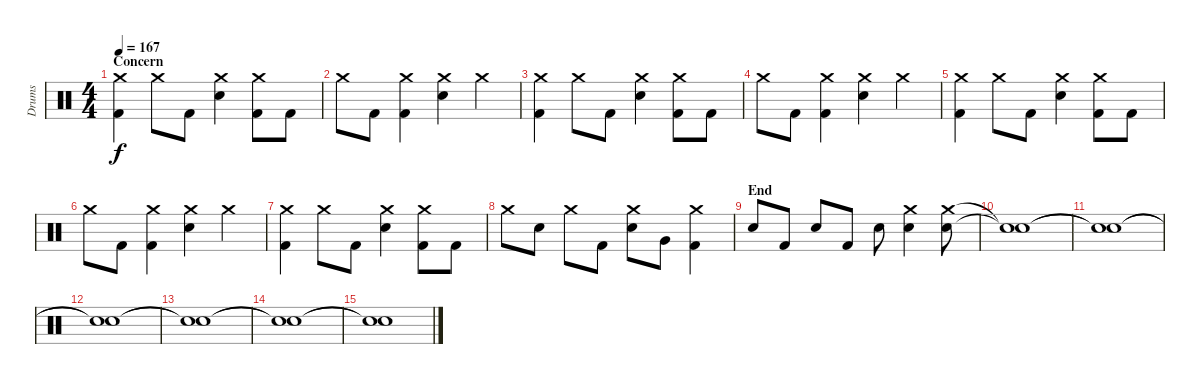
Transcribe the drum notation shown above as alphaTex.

\track ("Drums" "Drums") {instrument percussion}
\staff {score}
\articulation defaults
\ts (4 4)
\section ("" "Concern")
\tempo 167
\clef neutral
\ks c
("Crash medium (hit)" "Kick (hit) 2").4{dy f} "Crash medium (hit)".8 "Kick (hit) 2".8 ("Crash medium (hit)" "Electric Snare (hit)").4 ("Crash medium (hit)" "Kick (hit) 2").8 "Kick (hit) 2".8 |
"Crash medium (hit)".8 "Kick (hit) 2".8 ("Crash medium (hit)" "Kick (hit) 2").4 ("Crash medium (hit)" "Electric Snare (hit)").4 "Crash medium (hit)".4 |
("Crash medium (hit)" "Kick (hit) 2").4 "Crash medium (hit)".8 "Kick (hit) 2".8 ("Crash medium (hit)" "Electric Snare (hit)").4 ("Crash medium (hit)" "Kick (hit) 2").8 "Kick (hit) 2".8 |
"Crash medium (hit)".8 "Kick (hit) 2".8 ("Crash medium (hit)" "Kick (hit) 2").4 ("Crash medium (hit)" "Electric Snare (hit)").4 "Crash medium (hit)".4 |
("Crash medium (hit)" "Kick (hit) 2").4 "Crash medium (hit)".8 "Kick (hit) 2".8 ("Crash medium (hit)" "Electric Snare (hit)").4 ("Crash medium (hit)" "Kick (hit) 2").8 "Kick (hit) 2".8 |
"Crash medium (hit)".8 "Kick (hit) 2".8 ("Crash medium (hit)" "Kick (hit) 2").4 ("Crash medium (hit)" "Electric Snare (hit)").4 "Crash medium (hit)".4 |
("Crash medium (hit)" "Kick (hit) 2").4 "Crash medium (hit)".8 "Kick (hit) 2".8 ("Crash medium (hit)" "Electric Snare (hit)").4 ("Crash medium (hit)" "Kick (hit) 2").8 "Kick (hit) 2".8 |
"Crash medium (hit)".8 "Electric Snare (hit)".8 "Crash medium (hit)".8 "Kick (hit) 2".8 ("Crash medium (hit)" "Electric Snare (hit)").8 "Very Low Tom (hit)".8 ("Crash medium (hit)" "Kick (hit) 2").4 |
\section ("" "End")
"Electric Snare (hit)".8 "Kick (hit) 2".8 "Electric Snare (hit)".8 "Kick (hit) 2".8 "Electric Snare (hit)".8 ("Crash medium (hit)" "Electric Snare (hit)").4 ("Crash medium (hit)" "Electric Snare (hit)").8 |
("Snare (hit)"{t} "Snare (hit)"{t}).1 |
("Snare (hit)"{t} "Snare (hit)"{t}).1 |
("Snare (hit)"{t} "Snare (hit)"{t}).1 |
("Snare (hit)"{t} "Snare (hit)"{t}).1 |
("Snare (hit)"{t} "Snare (hit)"{t}).1 |
("Snare (hit)"{t} "Snare (hit)"{t}).1
